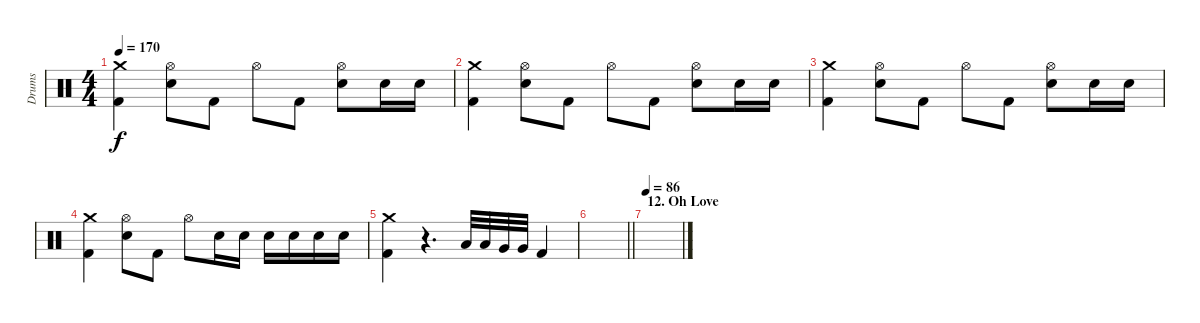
\track ("Drums" "Drums") {instrument percussion}
\staff {score}
\articulation defaults
\ts (4 4)
\tempo 170
\clef neutral
\ks c
("Crash medium (hit)" "Kick (hit) 2").4{dy f} ("Hi-Hat (open)" "Electric Snare (hit)").8 "Kick (hit) 2".8 "Hi-Hat (open)".8 "Kick (hit) 2".8 ("Hi-Hat (open)" "Electric Snare (hit)").8 "Electric Snare (hit)".16 "Electric Snare (hit)".16 |
("Crash medium (hit)" "Kick (hit) 2").4 ("Hi-Hat (open)" "Electric Snare (hit)").8 "Kick (hit) 2".8 "Hi-Hat (open)".8 "Kick (hit) 2".8 ("Hi-Hat (open)" "Electric Snare (hit)").8 "Electric Snare (hit)".16 "Electric Snare (hit)".16 |
("Crash medium (hit)" "Kick (hit) 2").4 ("Hi-Hat (open)" "Electric Snare (hit)").8 "Kick (hit) 2".8 "Hi-Hat (open)".8 "Kick (hit) 2".8 ("Hi-Hat (open)" "Electric Snare (hit)").8 "Electric Snare (hit)".16 "Electric Snare (hit)".16 |
("Crash medium (hit)" "Kick (hit) 2").4 ("Hi-Hat (open)" "Electric Snare (hit)").8 "Kick (hit) 2".8 "Hi-Hat (open)".8 "Electric Snare (hit)".16 "Electric Snare (hit)".16 "Electric Snare (hit)".16 "Electric Snare (hit)".16 "Electric Snare (hit)".16 "Electric Snare (hit)".16 |
("Crash medium (hit)" "Kick (hit) 2").4 r.4{d} "Low Tom (hit)".32 "Low Tom (hit)".32 "Very Low Tom (hit)".32 "Very Low Tom (hit)".32 "Kick (hit) 2".4 |
\barLineRight lightlight
|
\section ("" "12. Oh Love")
\tempo 86
